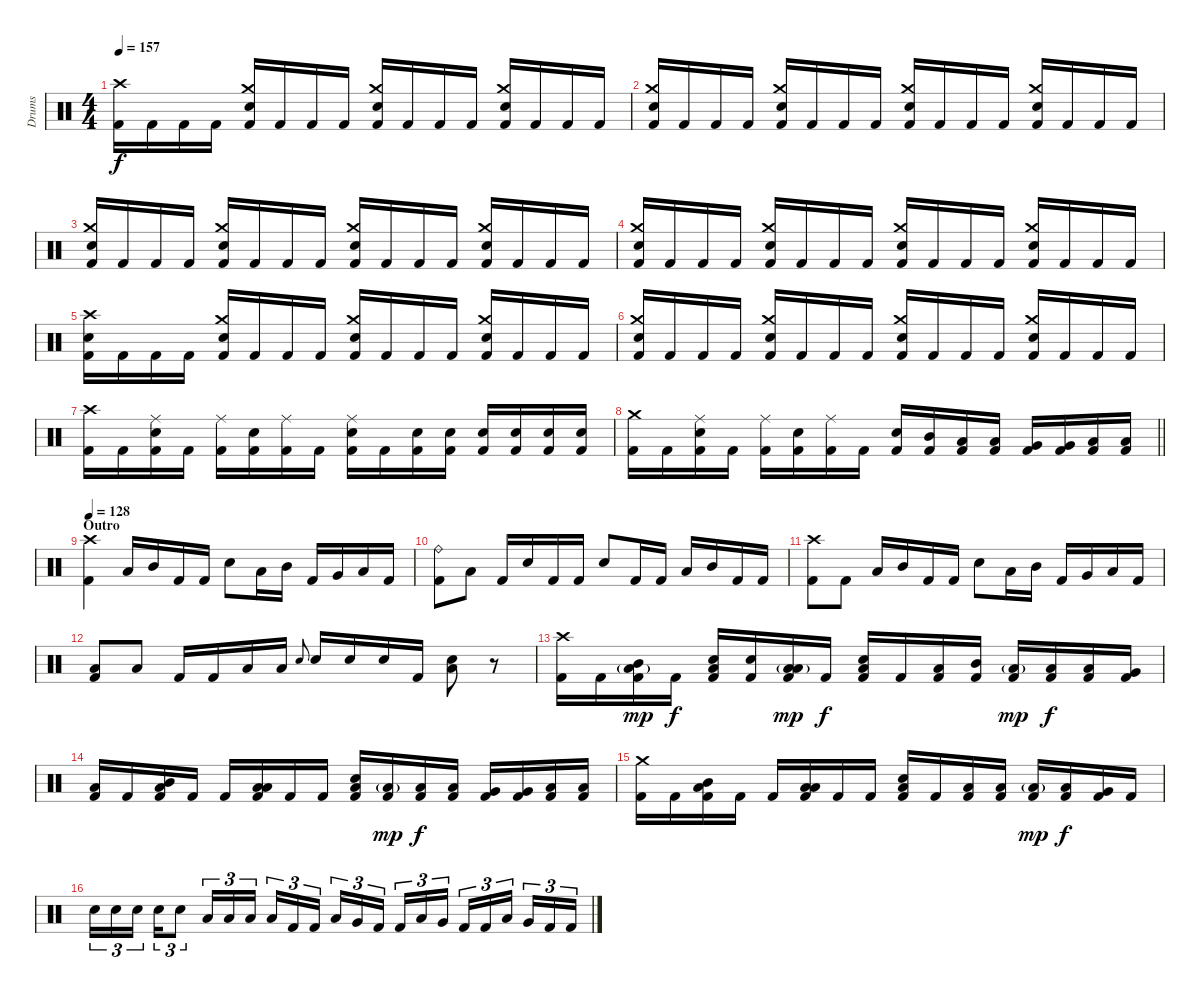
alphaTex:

\track ("Drums" "Drums") {instrument percussion}
\staff {score}
\articulation defaults
\ts (4 4)
\tempo 157
\clef neutral
\ks c
("Crash high (hit)" "Kick (hit) 2").16{dy f} "Kick (hit) 2".16 "Kick (hit) 2".16 "Kick (hit) 2".16 ("Crash medium (hit)" "Electric Snare (hit)" "Kick (hit) 2").16 "Kick (hit) 2".16 "Kick (hit) 2".16 "Kick (hit) 2".16 ("Crash medium (hit)" "Electric Snare (hit)" "Kick (hit) 2").16 "Kick (hit) 2".16 "Kick (hit) 2".16 "Kick (hit) 2".16 ("Crash medium (hit)" "Electric Snare (hit)" "Kick (hit) 2").16 "Kick (hit) 2".16 "Kick (hit) 2".16 "Kick (hit) 2".16 |
("Crash medium (hit)" "Electric Snare (hit)" "Kick (hit) 2").16 "Kick (hit) 2".16 "Kick (hit) 2".16 "Kick (hit) 2".16 ("Crash medium (hit)" "Electric Snare (hit)" "Kick (hit) 2").16 "Kick (hit) 2".16 "Kick (hit) 2".16 "Kick (hit) 2".16 ("Crash medium (hit)" "Electric Snare (hit)" "Kick (hit) 2").16 "Kick (hit) 2".16 "Kick (hit) 2".16 "Kick (hit) 2".16 ("Crash medium (hit)" "Electric Snare (hit)" "Kick (hit) 2").16 "Kick (hit) 2".16 "Kick (hit) 2".16 "Kick (hit) 2".16 |
("Crash medium (hit)" "Electric Snare (hit)" "Kick (hit) 2").16 "Kick (hit) 2".16 "Kick (hit) 2".16 "Kick (hit) 2".16 ("Crash medium (hit)" "Electric Snare (hit)" "Kick (hit) 2").16 "Kick (hit) 2".16 "Kick (hit) 2".16 "Kick (hit) 2".16 ("Crash medium (hit)" "Electric Snare (hit)" "Kick (hit) 2").16 "Kick (hit) 2".16 "Kick (hit) 2".16 "Kick (hit) 2".16 ("Crash medium (hit)" "Electric Snare (hit)" "Kick (hit) 2").16 "Kick (hit) 2".16 "Kick (hit) 2".16 "Kick (hit) 2".16 |
("Crash medium (hit)" "Electric Snare (hit)" "Kick (hit) 2").16 "Kick (hit) 2".16 "Kick (hit) 2".16 "Kick (hit) 2".16 ("Crash medium (hit)" "Electric Snare (hit)" "Kick (hit) 2").16 "Kick (hit) 2".16 "Kick (hit) 2".16 "Kick (hit) 2".16 ("Crash medium (hit)" "Electric Snare (hit)" "Kick (hit) 2").16 "Kick (hit) 2".16 "Kick (hit) 2".16 "Kick (hit) 2".16 ("Crash medium (hit)" "Electric Snare (hit)" "Kick (hit) 2").16 "Kick (hit) 2".16 "Kick (hit) 2".16 "Kick (hit) 2".16 |
("Crash high (hit)" "Electric Snare (hit)" "Kick (hit) 2").16 "Kick (hit) 2".16 "Kick (hit) 2".16 "Kick (hit) 2".16 ("Crash medium (hit)" "Electric Snare (hit)" "Kick (hit) 2").16 "Kick (hit) 2".16 "Kick (hit) 2".16 "Kick (hit) 2".16 ("Crash medium (hit)" "Electric Snare (hit)" "Kick (hit) 2").16 "Kick (hit) 2".16 "Kick (hit) 2".16 "Kick (hit) 2".16 ("Crash medium (hit)" "Electric Snare (hit)" "Kick (hit) 2").16 "Kick (hit) 2".16 "Kick (hit) 2".16 "Kick (hit) 2".16 |
("Crash medium (hit)" "Electric Snare (hit)" "Kick (hit) 2").16 "Kick (hit) 2".16 "Kick (hit) 2".16 "Kick (hit) 2".16 ("Crash medium (hit)" "Electric Snare (hit)" "Kick (hit) 2").16 "Kick (hit) 2".16 "Kick (hit) 2".16 "Kick (hit) 2".16 ("Crash medium (hit)" "Electric Snare (hit)" "Kick (hit) 2").16 "Kick (hit) 2".16 "Kick (hit) 2".16 "Kick (hit) 2".16 ("Crash medium (hit)" "Electric Snare (hit)" "Kick (hit) 2").16 "Kick (hit) 2".16 "Kick (hit) 2".16 "Kick (hit) 2".16 |
("Crash high (hit)" "Kick (hit) 2").16 "Kick (hit) 2".16 ("Ride (middle)" "Electric Snare (hit)" "Kick (hit) 2").16 "Kick (hit) 2".16 ("Ride (middle)" "Kick (hit) 2").16 ("Electric Snare (hit)" "Kick (hit) 2").16 ("Ride (middle)" "Kick (hit) 2").16 "Kick (hit) 2".16 ("Ride (middle)" "Electric Snare (hit)" "Kick (hit) 2").16 "Kick (hit) 2".16 ("Electric Snare (hit)" "Kick (hit) 2").16 ("Electric Snare (hit)" "Kick (hit) 2").16 ("Electric Snare (hit)" "Kick (hit) 2").16 ("Electric Snare (hit)" "Kick (hit) 2").16 ("Electric Snare (hit)" "Kick (hit) 2").16 ("Electric Snare (hit)" "Kick (hit) 2").16 |
\barLineRight lightlight
("Crash medium (hit)" "Kick (hit) 2").16 "Kick (hit) 2".16 ("Ride (middle)" "Electric Snare (hit)" "Kick (hit) 2").16 "Kick (hit) 2".16 ("Ride (middle)" "Kick (hit) 2").16 ("Electric Snare (hit)" "Kick (hit) 2").16 ("Ride (middle)" "Kick (hit) 2").16 "Kick (hit) 2".16 ("Electric Snare (hit)" "Kick (hit) 2").16 ("Mid Tom (hit)" "Kick (hit) 2").16 ("Low Tom (hit)" "Kick (hit) 2").16 ("Low Tom (hit)" "Kick (hit) 2").16 ("Very Low Tom (hit)" "Kick (hit) 2").16 ("Very Low Tom (hit)" "Kick (hit) 2").16 ("Low Floor Tom (hit)" "Kick (hit) 2").16 ("Low Floor Tom (hit)" "Kick (hit) 2").16 |
\section ("" "Outro")
\tempo 128
("Crash high (hit)" "Kick (hit) 2").4 "Low Tom (hit)".16 "Mid Tom (hit)".16 "Kick (hit) 2".16 "Kick (hit) 2".16 "Electric Snare (hit)".8 "Low Tom (hit)".16 "Mid Tom (hit)".16 "Kick (hit) 2".16 "Very Low Tom (hit)".16 "Low Tom (hit)".16 "Kick (hit) 2".16 |
("Ride (bell)" "Kick (hit) 2").8 "Low Tom (hit)".8 "Kick (hit) 2".16 "Electric Snare (hit)".16 "Kick (hit) 2".16 "Kick (hit) 2".16 "Electric Snare (hit)".8 "Kick (hit) 2".16 "Kick (hit) 2".16 "Low Tom (hit)".16 "Mid Tom (hit)".16 "Kick (hit) 2".16 "Kick (hit) 2".16 |
("Crash high (hit)" "Kick (hit) 2").8 "Kick (hit) 2".8 "Low Tom (hit)".16 "Mid Tom (hit)".16 "Kick (hit) 2".16 "Kick (hit) 2".16 "Electric Snare (hit)".8 "Low Tom (hit)".16 "Mid Tom (hit)".16 "Kick (hit) 2".16 "Very Low Tom (hit)".16 "Low Tom (hit)".16 "Kick (hit) 2".16 |
("Low Floor Tom (hit)" "Kick (hit) 2").8 "Low Tom (hit)".8 "Kick (hit) 2".16 "Kick (hit) 2".16 "Low Floor Tom (hit)".16 "Low Tom (hit)".16 "Electric Snare (hit)".8{gr onbeat} "Electric Snare (hit)".16 "Electric Snare (hit)".16 "Electric Snare (hit)".16 "Kick (hit) 2".16 ("Electric Snare (hit)" "Low Floor Tom (hit)").8 r.8 |
("Crash high (hit)" "Kick (hit) 2").16 "Kick (hit) 2".16 ("Mid Tom (hit)" "Low Floor Tom (hit)"{g} "Kick (hit) 2").16{dy mp} "Kick (hit) 2".16{dy f} ("Low Floor Tom (hit)" "Electric Snare (hit)" "Kick (hit) 2").16 ("Electric Snare (hit)" "Kick (hit) 2").16 ("Low Tom (hit)" "Low Floor Tom (hit)"{g} "Kick (hit) 2").16{dy mp} "Kick (hit) 2".16{dy f} ("Low Floor Tom (hit)" "Electric Snare (hit)" "Kick (hit) 2").16 "Kick (hit) 2".16 ("Low Floor Tom (hit)" "Kick (hit) 2").16 ("Mid Tom (hit)" "Kick (hit) 2").16 ("Low Tom (hit)"{g} "Kick (hit) 2").16{dy mp} ("Low Floor Tom (hit)" "Kick (hit) 2").16{dy f} ("Low Tom (hit)" "Kick (hit) 2").16 ("Very Low Tom (hit)" "Kick (hit) 2").16 |
("Low Floor Tom (hit)" "Kick (hit) 2").16 "Kick (hit) 2".16 ("Mid Tom (hit)" "Low Floor Tom (hit)" "Kick (hit) 2").16 "Kick (hit) 2".16 "Kick (hit) 2".16 ("Low Tom (hit)" "Low Floor Tom (hit)" "Kick (hit) 2").16 "Kick (hit) 2".16 "Kick (hit) 2".16 ("Low Floor Tom (hit)" "Electric Snare (hit)" "Kick (hit) 2").16 ("Low Floor Tom (hit)"{g} "Kick (hit) 2").16{dy mp} ("Low Tom (hit)" "Kick (hit) 2").16{dy f} ("Low Tom (hit)" "Kick (hit) 2").16 ("Very Low Tom (hit)" "Kick (hit) 2").16 ("Very Low Tom (hit)" "Kick (hit) 2").16 ("Low Floor Tom (hit)" "Kick (hit) 2").16 ("Low Floor Tom (hit)" "Kick (hit) 2").16 |
("Crash medium (hit)" "Kick (hit) 2").16 "Kick (hit) 2".16 ("Mid Tom (hit)" "Low Floor Tom (hit)" "Kick (hit) 2").16 "Kick (hit) 2".16 "Kick (hit) 2".16 ("Low Tom (hit)" "Low Floor Tom (hit)" "Kick (hit) 2").16 "Kick (hit) 2".16 "Kick (hit) 2".16 ("Low Floor Tom (hit)" "Electric Snare (hit)" "Kick (hit) 2").16 "Kick (hit) 2".16 ("Low Floor Tom (hit)" "Kick (hit) 2").16 ("Low Tom (hit)" "Kick (hit) 2").16 ("Low Floor Tom (hit)"{g} "Kick (hit) 2").16{dy mp} ("Low Tom (hit)" "Kick (hit) 2").16{dy f} ("Very Low Tom (hit)" "Kick (hit) 2").16 "Kick (hit) 2".16 |
"Electric Snare (hit)".16{tu (3 2)} "Electric Snare (hit)".16{tu (3 2)} "Electric Snare (hit)".16{tu (3 2) beam splitsecondary} "Electric Snare (hit)".16{tu (3 2)} "Electric Snare (hit)".8{tu (3 2)} "Low Tom (hit)".16{tu (3 2)} "Low Tom (hit)".16{tu (3 2)} "Low Tom (hit)".16{tu (3 2) beam splitsecondary} "Low Tom (hit)".16{tu (3 2)} "Kick (hit) 2".16{tu (3 2)} "Kick (hit) 2".16{tu (3 2)} "Low Tom (hit)".16{tu (3 2)} "Very Low Tom (hit)".16{tu (3 2)} "Kick (hit) 2".16{tu (3 2) beam splitsecondary} "Kick (hit) 2".16{tu (3 2)} "Low Tom (hit)".16{tu (3 2)} "Very Low Tom (hit)".16{tu (3 2)} "Kick (hit) 2".16{tu (3 2)} "Kick (hit) 2".16{tu (3 2)} "Low Tom (hit)".16{tu (3 2) beam splitsecondary} "Very Low Tom (hit)".16{tu (3 2)} "Kick (hit) 2".16{tu (3 2)} "Kick (hit) 2".16{tu (3 2)}
